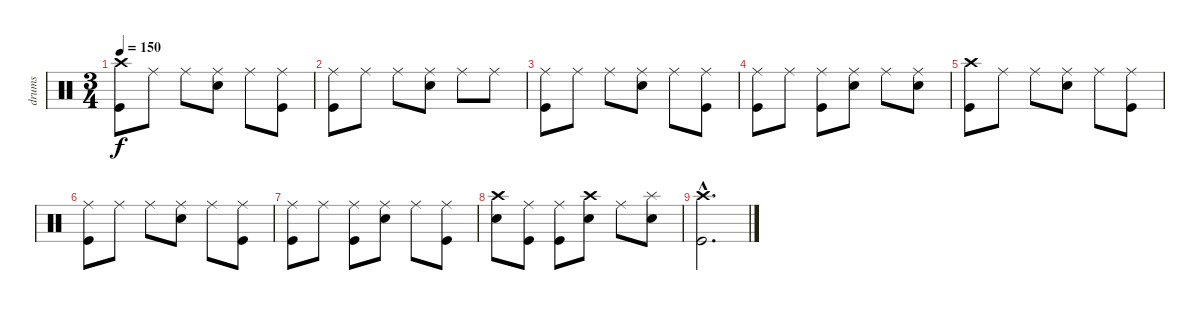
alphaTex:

\track ("drums" "drums") {instrument percussion}
\staff {score}
\articulation defaults
\ts (3 4)
\tempo 150
\clef neutral
\ks c
("Crash high (hit)" "Kick (hit)").8{dy f} "Ride (middle)".8 "Ride (middle)".8 ("Ride (middle)" "Snare (hit) 2").8 "Ride (middle)".8 ("Ride (middle)" "Kick (hit)").8 |
("Ride (middle)" "Kick (hit)").8 "Ride (middle)".8 "Ride (middle)".8 ("Ride (middle)" "Snare (hit) 2").8 "Ride (middle)".8 "Ride (middle)".8 |
("Ride (middle)" "Kick (hit)").8 "Ride (middle)".8 "Ride (middle)".8 ("Ride (middle)" "Snare (hit) 2").8 "Ride (middle)".8 ("Ride (middle)" "Kick (hit)").8 |
("Ride (middle)" "Kick (hit)").8 "Ride (middle)".8 ("Ride (middle)" "Kick (hit)").8 ("Ride (middle)" "Snare (hit) 2").8 "Ride (middle)".8 ("Ride (middle)" "Snare (hit) 2").8 |
("Crash high (hit)" "Kick (hit)").8 "Ride (middle)".8 "Ride (middle)".8 ("Ride (middle)" "Snare (hit) 2").8 "Ride (middle)".8 ("Ride (middle)" "Kick (hit)").8 |
("Ride (middle)" "Kick (hit)").8 "Ride (middle)".8 "Ride (middle)".8 ("Ride (middle)" "Snare (hit) 2").8 "Ride (middle)".8 ("Ride (middle)" "Kick (hit)").8 |
("Ride (middle)" "Kick (hit)").8 "Ride (middle)".8 ("Ride (middle)" "Kick (hit)").8 ("Ride (middle)" "Snare (hit) 2").8 "Ride (middle)".8 ("Ride (middle)" "Kick (hit)").8 |
("Crash high (hit)" "Snare (hit) 2").8 ("Ride (middle)" "Kick (hit)").8 ("Ride (middle)" "Kick (hit)").8 ("Crash high (hit)" "Snare (hit) 2").8 "Ride (middle)".8 ("Splash (hit)" "Snare (hit) 2").8 |
("Crash high (hit)"{hac} "Kick (hit)"{hac}).2{d}
